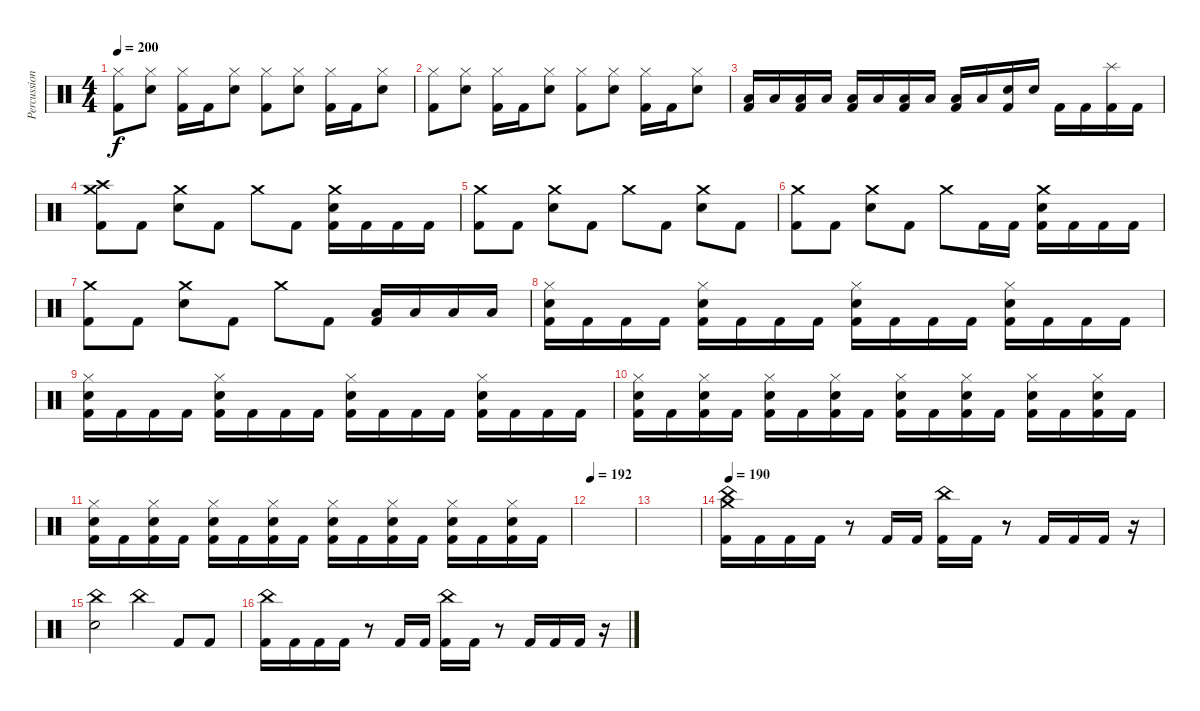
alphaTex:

\track ("Percussion" "Percussion") {instrument percussion}
\staff {score}
\articulation defaults
\ts (4 4)
\tempo 200
\clef neutral
\ks c
("Hi-Hat (closed)" "Kick (hit) 2").8{dy f} ("Hi-Hat (closed)" "Electric Snare (hit)").8 ("Hi-Hat (closed)" "Kick (hit) 2").16 "Kick (hit) 2".16 ("Hi-Hat (closed)" "Electric Snare (hit)").8 ("Hi-Hat (closed)" "Kick (hit) 2").8 ("Hi-Hat (closed)" "Electric Snare (hit)").8 ("Hi-Hat (closed)" "Kick (hit) 2").16 "Kick (hit) 2".16 ("Hi-Hat (closed)" "Electric Snare (hit)").8 |
("Hi-Hat (closed)" "Kick (hit) 2").8 ("Hi-Hat (closed)" "Electric Snare (hit)").8 ("Hi-Hat (closed)" "Kick (hit) 2").16 "Kick (hit) 2".16 ("Hi-Hat (closed)" "Electric Snare (hit)").8 ("Hi-Hat (closed)" "Kick (hit) 2").8 ("Hi-Hat (closed)" "Electric Snare (hit)").8 ("Hi-Hat (closed)" "Kick (hit) 2").16 "Kick (hit) 2".16 ("Hi-Hat (closed)" "Electric Snare (hit)").8 |
("Low Tom (hit)" "Kick (hit) 2").16 "Low Tom (hit)".16 ("Low Floor Tom (hit)" "Kick (hit) 2").16 "Low Floor Tom (hit)".16 ("Low Floor Tom (hit)" "Kick (hit) 2").16 "Low Floor Tom (hit)".16 ("Low Floor Tom (hit)" "Kick (hit) 2").16 "Low Floor Tom (hit)".16 ("Low Floor Tom (hit)" "Kick (hit) 2").16 "Low Floor Tom (hit)".16 ("Electric Snare (hit)" "Kick (hit) 2").16 "Electric Snare (hit)".16 "Kick (hit) 2".16 "Kick (hit) 2".16 ("Splash (hit)" "Kick (hit) 2").16 "Kick (hit) 2".16 |
("Crash high (hit)" "Crash medium (hit)" "Kick (hit) 2").8 "Kick (hit) 2".8 ("Crash medium (hit)" "Electric Snare (hit)").8 "Kick (hit) 2".8 "Crash medium (hit)".8 "Kick (hit) 2".8 ("Crash medium (hit)" "Electric Snare (hit)" "Kick (hit) 2").16 "Kick (hit) 2".16 "Kick (hit) 2".16 "Kick (hit) 2".16 |
("Crash medium (hit)" "Kick (hit) 2").8 "Kick (hit) 2".8 ("Crash medium (hit)" "Electric Snare (hit)").8 "Kick (hit) 2".8 "Crash medium (hit)".8 "Kick (hit) 2".8 ("Crash medium (hit)" "Electric Snare (hit)").8 "Kick (hit) 2".8 |
("Crash medium (hit)" "Kick (hit) 2").8 "Kick (hit) 2".8 ("Crash medium (hit)" "Electric Snare (hit)").8 "Kick (hit) 2".8 "Crash medium (hit)".8 "Kick (hit) 2".16 "Kick (hit) 2".16 ("Crash medium (hit)" "Electric Snare (hit)" "Kick (hit) 2").16 "Kick (hit) 2".16 "Kick (hit) 2".16 "Kick (hit) 2".16 |
("Crash medium (hit)" "Kick (hit) 2").8 "Kick (hit) 2".8 ("Crash medium (hit)" "Electric Snare (hit)").8 "Kick (hit) 2".8 "Crash medium (hit)".8 "Kick (hit) 2".8 ("Low Tom (hit)" "Kick (hit) 2").16 "Low Tom (hit)".16 "Low Floor Tom (hit)".16 "Low Floor Tom (hit)".16 |
("Hi-Hat (closed)" "Electric Snare (hit)" "Kick (hit) 2").16 "Kick (hit) 2".16 "Kick (hit) 2".16 "Kick (hit) 2".16 ("Hi-Hat (closed)" "Electric Snare (hit)" "Kick (hit) 2").16 "Kick (hit) 2".16 "Kick (hit) 2".16 "Kick (hit) 2".16 ("Hi-Hat (closed)" "Electric Snare (hit)" "Kick (hit) 2").16 "Kick (hit) 2".16 "Kick (hit) 2".16 "Kick (hit) 2".16 ("Hi-Hat (closed)" "Electric Snare (hit)" "Kick (hit) 2").16 "Kick (hit) 2".16 "Kick (hit) 2".16 "Kick (hit) 2".16 |
("Hi-Hat (closed)" "Electric Snare (hit)" "Kick (hit) 2").16 "Kick (hit) 2".16 "Kick (hit) 2".16 "Kick (hit) 2".16 ("Hi-Hat (closed)" "Electric Snare (hit)" "Kick (hit) 2").16 "Kick (hit) 2".16 "Kick (hit) 2".16 "Kick (hit) 2".16 ("Hi-Hat (closed)" "Electric Snare (hit)" "Kick (hit) 2").16 "Kick (hit) 2".16 "Kick (hit) 2".16 "Kick (hit) 2".16 ("Hi-Hat (closed)" "Electric Snare (hit)" "Kick (hit) 2").16 "Kick (hit) 2".16 "Kick (hit) 2".16 "Kick (hit) 2".16 |
("Hi-Hat (closed)" "Electric Snare (hit)" "Kick (hit) 2").16 "Kick (hit) 2".16 ("Hi-Hat (closed)" "Electric Snare (hit)" "Kick (hit) 2").16 "Kick (hit) 2".16 ("Hi-Hat (closed)" "Electric Snare (hit)" "Kick (hit) 2").16 "Kick (hit) 2".16 ("Hi-Hat (closed)" "Electric Snare (hit)" "Kick (hit) 2").16 "Kick (hit) 2".16 ("Hi-Hat (closed)" "Electric Snare (hit)" "Kick (hit) 2").16 "Kick (hit) 2".16 ("Hi-Hat (closed)" "Electric Snare (hit)" "Kick (hit) 2").16 "Kick (hit) 2".16 ("Hi-Hat (closed)" "Electric Snare (hit)" "Kick (hit) 2").16 "Kick (hit) 2".16 ("Hi-Hat (closed)" "Electric Snare (hit)" "Kick (hit) 2").16 "Kick (hit) 2".16 |
("Hi-Hat (closed)" "Electric Snare (hit)" "Kick (hit) 2").16 "Kick (hit) 2".16 ("Hi-Hat (closed)" "Electric Snare (hit)" "Kick (hit) 2").16 "Kick (hit) 2".16 ("Hi-Hat (closed)" "Electric Snare (hit)" "Kick (hit) 2").16 "Kick (hit) 2".16 ("Hi-Hat (closed)" "Electric Snare (hit)" "Kick (hit) 2").16 "Kick (hit) 2".16 ("Hi-Hat (closed)" "Electric Snare (hit)" "Kick (hit) 2").16 "Kick (hit) 2".16 ("Hi-Hat (closed)" "Electric Snare (hit)" "Kick (hit) 2").16 "Kick (hit) 2".16 ("Hi-Hat (closed)" "Electric Snare (hit)" "Kick (hit) 2").16 "Kick (hit) 2".16 ("Hi-Hat (closed)" "Electric Snare (hit)" "Kick (hit) 2").16 "Kick (hit) 2".16 |
\tempo 192
|
|
\tempo 190
("Crash medium (hit)" "China (hit)" "Kick (hit) 2").16 "Kick (hit) 2".16 "Kick (hit) 2".16 "Kick (hit) 2".16 r.8 "Kick (hit) 2".16 "Kick (hit) 2".16 ("China (hit)" "Kick (hit) 2").16 "Kick (hit) 2".16 r.8 "Kick (hit) 2".16 "Kick (hit) 2".16 "Kick (hit) 2".16 r.16 |
("China (hit)" "Electric Snare (hit)").2 "China (hit)".4 "Kick (hit) 2".8 "Kick (hit) 2".8 |
("China (hit)" "Kick (hit) 2").16 "Kick (hit) 2".16 "Kick (hit) 2".16 "Kick (hit) 2".16 r.8 "Kick (hit) 2".16 "Kick (hit) 2".16 ("China (hit)" "Kick (hit) 2").16 "Kick (hit) 2".16 r.8 "Kick (hit) 2".16 "Kick (hit) 2".16 "Kick (hit) 2".16 r.16
